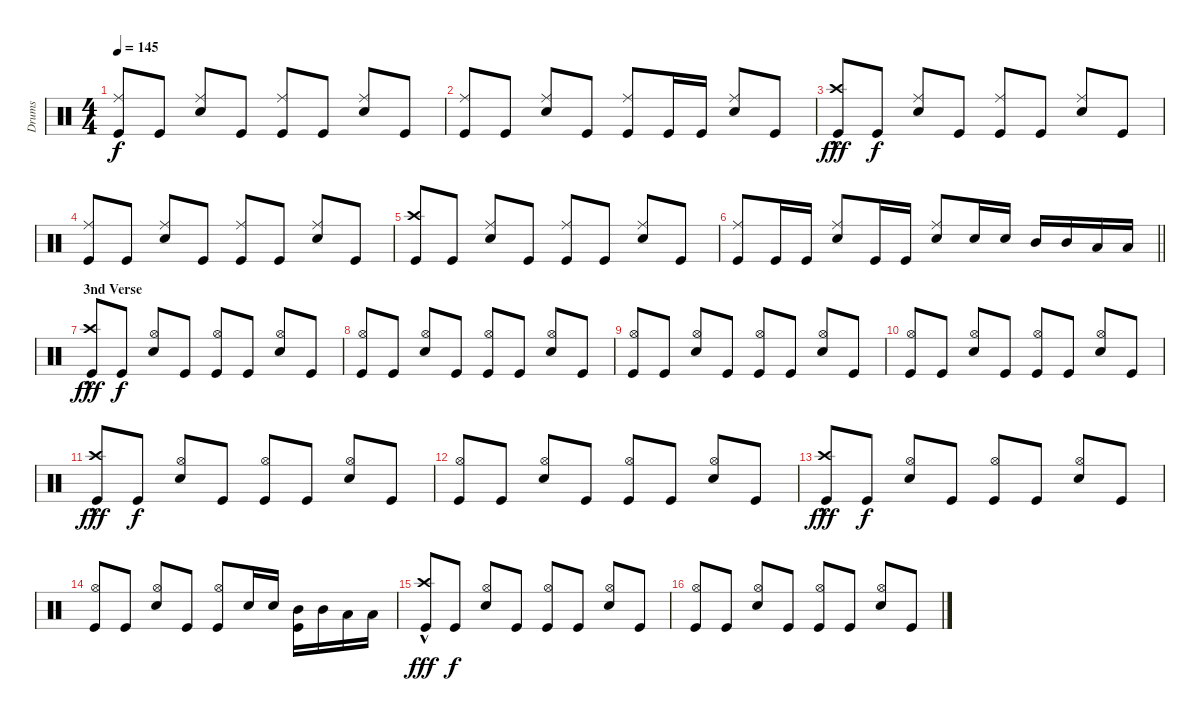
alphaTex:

\track ("Drums" "Drums") {instrument percussion}
\staff {score}
\articulation defaults
\ts (4 4)
\tempo 145
\clef neutral
\ks c
("Ride (middle)" "Kick (hit)").8{dy f beam Up} "Kick (hit)".8{beam Up} ("Ride (middle)" "Snare (hit) 2").8{beam Up} "Kick (hit)".8{beam Up} ("Ride (middle)" "Kick (hit)").8{beam Up} "Kick (hit)".8{beam Up} ("Ride (middle)" "Snare (hit) 2").8{beam Up} "Kick (hit)".8{beam Up} |
("Ride (middle)" "Kick (hit)").8{beam Up} "Kick (hit)".8{beam Up} ("Ride (middle)" "Snare (hit) 2").8{beam Up} "Kick (hit)".8{beam Up} ("Ride (middle)" "Kick (hit)").8{beam Up} "Kick (hit)".16{beam Up} "Kick (hit)".16{beam Up} ("Ride (middle)" "Snare (hit) 2").8{beam Up} "Kick (hit)".8{beam Up} |
("Crash high (hit)"{hac} "Kick (hit)").8{dy fff beam Up} "Kick (hit)".8{dy f beam Up} ("Ride (middle)" "Snare (hit) 2").8{beam Up} "Kick (hit)".8{beam Up} ("Ride (middle)" "Kick (hit)").8{beam Up} "Kick (hit)".8{beam Up} ("Ride (middle)" "Snare (hit) 2").8{beam Up} "Kick (hit)".8{beam Up} |
("Ride (middle)" "Kick (hit)").8{beam Up} "Kick (hit)".8{beam Up} ("Ride (middle)" "Snare (hit) 2").8{beam Up} "Kick (hit)".8{beam Up} ("Ride (middle)" "Kick (hit)").8{beam Up} "Kick (hit)".8{beam Up} ("Ride (middle)" "Snare (hit) 2").8{beam Up} "Kick (hit)".8{beam Up} |
("Crash high (hit)" "Kick (hit)").8{beam Up} "Kick (hit)".8{beam Up} ("Ride (middle)" "Snare (hit) 2").8{beam Up} "Kick (hit)".8{beam Up} ("Ride (middle)" "Kick (hit)").8{beam Up} "Kick (hit)".8{beam Up} ("Ride (middle)" "Snare (hit) 2").8{beam Up} "Kick (hit)".8{beam Up} |
\barLineRight lightlight
("Ride (middle)" "Kick (hit)").8{beam Up} "Kick (hit)".16{beam Up} "Kick (hit)".16{beam Up} ("Ride (middle)" "Snare (hit) 2").8{beam Up} "Kick (hit)".16{beam Up} "Kick (hit)".16{beam Up} ("Ride (middle)" "Snare (hit) 2").8{beam Up} "Snare (hit) 2".16{beam Up} "Snare (hit) 2".16{beam Up} "Mid Tom (hit)".16{beam Up} "Mid Tom (hit)".16{beam Up} "Low Tom (hit)".16{beam Up} "Low Tom (hit)".16{beam Up} |
\section ("" "3nd Verse")
("Crash high (hit)"{hac} "Kick (hit)").8{dy fff beam Up} "Kick (hit)".8{dy f beam Up} ("Hi-Hat (open)" "Snare (hit) 2").8{beam Up} "Kick (hit)".8{beam Up} ("Hi-Hat (open)" "Kick (hit)").8{beam Up} "Kick (hit)".8{beam Up} ("Hi-Hat (open)" "Snare (hit) 2").8{beam Up} "Kick (hit)".8{beam Up} |
("Hi-Hat (open)" "Kick (hit)").8{beam Up} "Kick (hit)".8{beam Up} ("Hi-Hat (open)" "Snare (hit) 2").8{beam Up} "Kick (hit)".8{beam Up} ("Hi-Hat (open)" "Kick (hit)").8{beam Up} "Kick (hit)".8{beam Up} ("Hi-Hat (open)" "Snare (hit) 2").8{beam Up} "Kick (hit)".8{beam Up} |
("Hi-Hat (open)" "Kick (hit)").8{beam Up} "Kick (hit)".8{beam Up} ("Hi-Hat (open)" "Snare (hit) 2").8{beam Up} "Kick (hit)".8{beam Up} ("Hi-Hat (open)" "Kick (hit)").8{beam Up} "Kick (hit)".8{beam Up} ("Hi-Hat (open)" "Snare (hit) 2").8{beam Up} "Kick (hit)".8{beam Up} |
("Hi-Hat (open)" "Kick (hit)").8{beam Up} "Kick (hit)".8{beam Up} ("Hi-Hat (open)" "Snare (hit) 2").8{beam Up} "Kick (hit)".8{beam Up} ("Hi-Hat (open)" "Kick (hit)").8{beam Up} "Kick (hit)".8{beam Up} ("Hi-Hat (open)" "Snare (hit) 2").8{beam Up} "Kick (hit)".8{beam Up} |
("Crash high (hit)"{hac} "Kick (hit)").8{dy fff beam Up} "Kick (hit)".8{dy f beam Up} ("Hi-Hat (open)" "Snare (hit) 2").8{beam Up} "Kick (hit)".8{beam Up} ("Hi-Hat (open)" "Kick (hit)").8{beam Up} "Kick (hit)".8{beam Up} ("Hi-Hat (open)" "Snare (hit) 2").8{beam Up} "Kick (hit)".8{beam Up} |
("Hi-Hat (open)" "Kick (hit)").8{beam Up} "Kick (hit)".8{beam Up} ("Hi-Hat (open)" "Snare (hit) 2").8{beam Up} "Kick (hit)".8{beam Up} ("Hi-Hat (open)" "Kick (hit)").8{beam Up} "Kick (hit)".8{beam Up} ("Hi-Hat (open)" "Snare (hit) 2").8{beam Up} "Kick (hit)".8{beam Up} |
("Crash high (hit)"{hac} "Kick (hit)").8{dy fff beam Up} "Kick (hit)".8{dy f beam Up} ("Hi-Hat (open)" "Snare (hit) 2").8{beam Up} "Kick (hit)".8{beam Up} ("Hi-Hat (open)" "Kick (hit)").8{beam Up} "Kick (hit)".8{beam Up} ("Hi-Hat (open)" "Snare (hit) 2").8{beam Up} "Kick (hit)".8{beam Up} |
("Hi-Hat (open)" "Kick (hit)").8{beam Up} "Kick (hit)".8{beam Up} ("Hi-Hat (open)" "Snare (hit) 2").8{beam Up} "Kick (hit)".8{beam Up} ("Hi-Hat (open)" "Kick (hit)").8{beam Up} "Snare (hit) 2".16{beam Up} "Snare (hit) 2".16{beam Up} ("Mid Tom (hit)" "Kick (hit)").16{beam Down} "Mid Tom (hit)".16{beam Down} "Low Tom (hit)".16{beam Down} "Low Tom (hit)".16{beam Down} |
("Crash high (hit)"{hac} "Kick (hit)").8{dy fff beam Up} "Kick (hit)".8{dy f beam Up} ("Hi-Hat (open)" "Snare (hit) 2").8{beam Up} "Kick (hit)".8{beam Up} ("Hi-Hat (open)" "Kick (hit)").8{beam Up} "Kick (hit)".8{beam Up} ("Hi-Hat (open)" "Snare (hit) 2").8{beam Up} "Kick (hit)".8{beam Up} |
("Hi-Hat (open)" "Kick (hit)").8{beam Up} "Kick (hit)".8{beam Up} ("Hi-Hat (open)" "Snare (hit) 2").8{beam Up} "Kick (hit)".8{beam Up} ("Hi-Hat (open)" "Kick (hit)").8{beam Up} "Kick (hit)".8{beam Up} ("Hi-Hat (open)" "Snare (hit) 2").8{beam Up} "Kick (hit)".8{beam Up}
